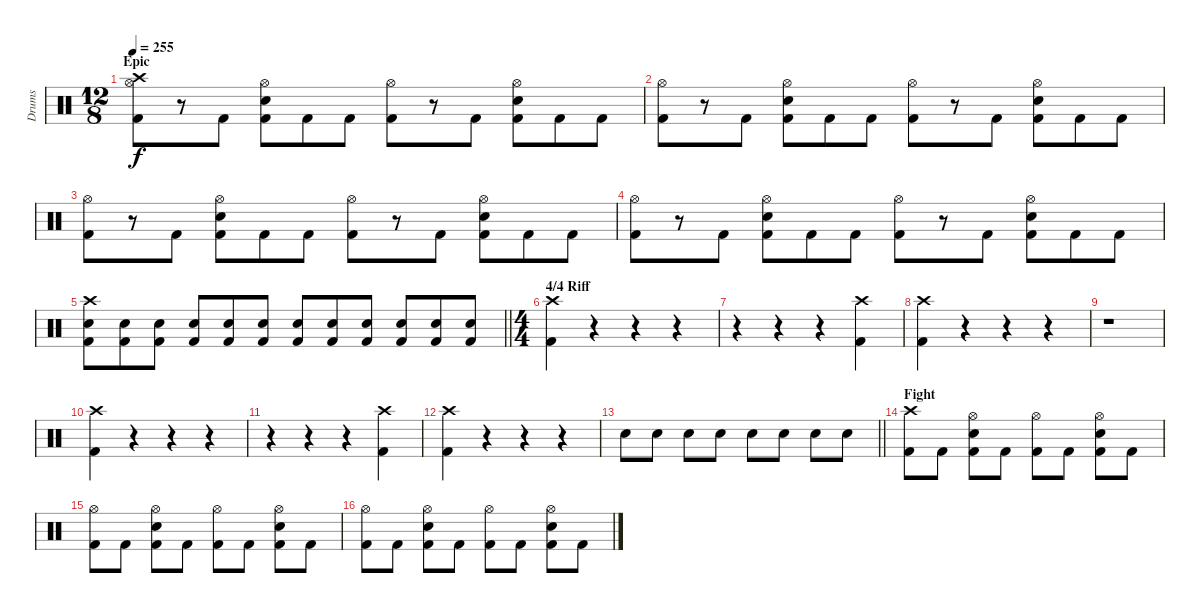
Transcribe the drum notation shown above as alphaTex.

\track ("Drums" "Drums") {instrument percussion}
\staff {score}
\articulation defaults
\ts (12 8)
\section ("" "Epic")
\tempo 255
\clef neutral
\ks c
("Crash high (hit)" "Hi-Hat (open)" "Kick (hit) 2").8{dy f} r.8 "Kick (hit) 2".8 ("Hi-Hat (open)" "Snare (hit) 2" "Kick (hit) 2").8 "Kick (hit) 2".8 "Kick (hit) 2".8 ("Hi-Hat (open)" "Kick (hit) 2").8 r.8 "Kick (hit) 2".8 ("Hi-Hat (open)" "Snare (hit) 2" "Kick (hit) 2").8 "Kick (hit) 2".8 "Kick (hit) 2".8 |
("Hi-Hat (open)" "Kick (hit) 2").8 r.8 "Kick (hit) 2".8 ("Hi-Hat (open)" "Snare (hit) 2" "Kick (hit) 2").8 "Kick (hit) 2".8 "Kick (hit) 2".8 ("Hi-Hat (open)" "Kick (hit) 2").8 r.8 "Kick (hit) 2".8 ("Hi-Hat (open)" "Snare (hit) 2" "Kick (hit) 2").8 "Kick (hit) 2".8 "Kick (hit) 2".8 |
("Hi-Hat (open)" "Kick (hit) 2").8 r.8 "Kick (hit) 2".8 ("Hi-Hat (open)" "Snare (hit) 2" "Kick (hit) 2").8 "Kick (hit) 2".8 "Kick (hit) 2".8 ("Hi-Hat (open)" "Kick (hit) 2").8 r.8 "Kick (hit) 2".8 ("Hi-Hat (open)" "Snare (hit) 2" "Kick (hit) 2").8 "Kick (hit) 2".8 "Kick (hit) 2".8 |
("Hi-Hat (open)" "Kick (hit) 2").8 r.8 "Kick (hit) 2".8 ("Hi-Hat (open)" "Snare (hit) 2" "Kick (hit) 2").8 "Kick (hit) 2".8 "Kick (hit) 2".8 ("Hi-Hat (open)" "Kick (hit) 2").8 r.8 "Kick (hit) 2".8 ("Hi-Hat (open)" "Snare (hit) 2" "Kick (hit) 2").8 "Kick (hit) 2".8 "Kick (hit) 2".8 |
\barLineRight lightlight
("Crash high (hit)" "Snare (hit) 2" "Kick (hit) 2").8 ("Snare (hit) 2" "Kick (hit) 2").8 ("Snare (hit) 2" "Kick (hit) 2").8 ("Snare (hit) 2" "Kick (hit) 2").8 ("Snare (hit) 2" "Kick (hit) 2").8 ("Snare (hit) 2" "Kick (hit) 2").8 ("Snare (hit) 2" "Kick (hit) 2").8 ("Snare (hit) 2" "Kick (hit) 2").8 ("Snare (hit) 2" "Kick (hit) 2").8 ("Snare (hit) 2" "Kick (hit) 2").8 ("Snare (hit) 2" "Kick (hit) 2").8 ("Snare (hit) 2" "Kick (hit) 2").8 |
\ts (4 4)
\section ("" "4/4 Riff")
("Crash high (hit)" "Kick (hit) 2").4 r.4 r.4 r.4 |
r.4 r.4 r.4 ("Crash high (hit)" "Kick (hit) 2").4 |
("Crash high (hit)" "Kick (hit) 2").4 r.4 r.4 r.4 |
r.1 |
("Crash high (hit)" "Kick (hit) 2").4 r.4 r.4 r.4 |
r.4 r.4 r.4 ("Crash high (hit)" "Kick (hit) 2").4 |
("Crash high (hit)" "Kick (hit) 2").4 r.4 r.4 r.4 |
\barLineRight lightlight "Snare (hit) 2".8 "Snare (hit) 2".8 "Snare (hit) 2".8 "Snare (hit) 2".8 "Snare (hit) 2".8 "Snare (hit) 2".8 "Snare (hit) 2".8 "Snare (hit) 2".8
|
\section ("" "Fight")
("Crash high (hit)" "Kick (hit) 2").8 "Kick (hit) 2".8 ("Hi-Hat (open)" "Snare (hit) 2" "Kick (hit) 2").8 "Kick (hit) 2".8 ("Hi-Hat (open)" "Kick (hit) 2").8 "Kick (hit) 2".8 ("Hi-Hat (open)" "Snare (hit) 2" "Kick (hit) 2").8 "Kick (hit) 2".8 |
("Hi-Hat (open)" "Kick (hit) 2").8 "Kick (hit) 2".8 ("Hi-Hat (open)" "Snare (hit) 2" "Kick (hit) 2").8 "Kick (hit) 2".8 ("Hi-Hat (open)" "Kick (hit) 2").8 "Kick (hit) 2".8 ("Hi-Hat (open)" "Snare (hit) 2" "Kick (hit) 2").8 "Kick (hit) 2".8 |
("Hi-Hat (open)" "Kick (hit) 2").8 "Kick (hit) 2".8 ("Hi-Hat (open)" "Snare (hit) 2" "Kick (hit) 2").8 "Kick (hit) 2".8 ("Hi-Hat (open)" "Kick (hit) 2").8 "Kick (hit) 2".8 ("Hi-Hat (open)" "Snare (hit) 2" "Kick (hit) 2").8 "Kick (hit) 2".8
